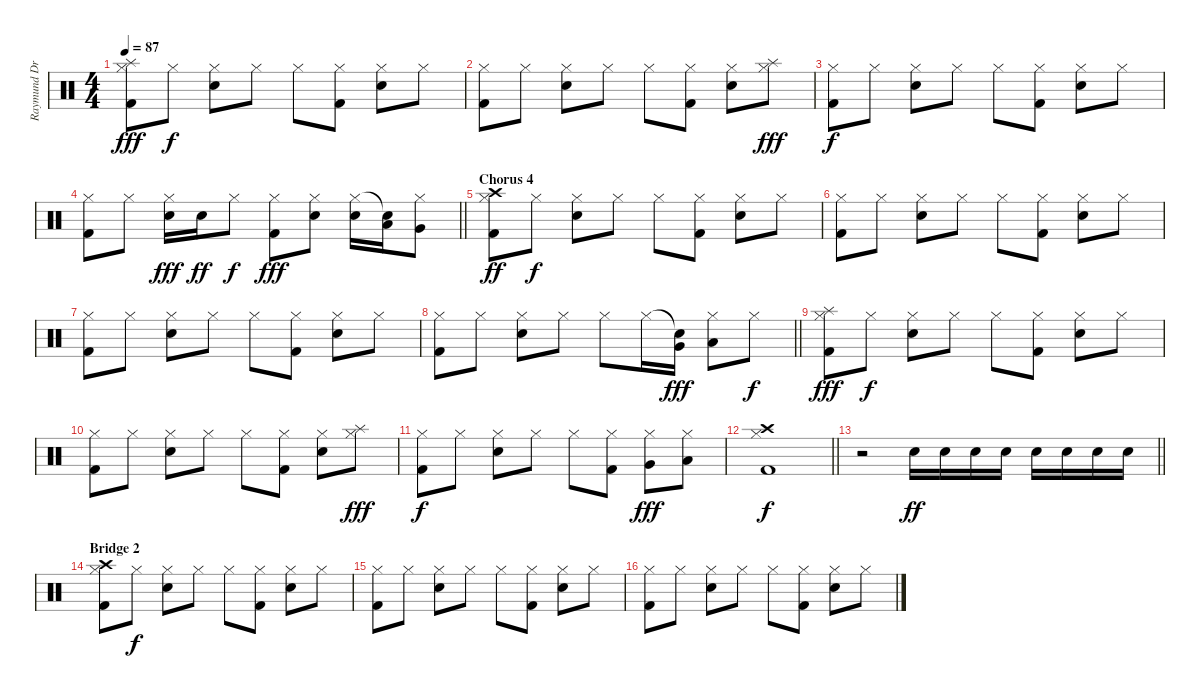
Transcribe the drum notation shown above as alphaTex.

\track ("Raymund Drums" "Raymund Dr") {instrument percussion}
\staff {score}
\articulation defaults
\ts (4 4)
\tempo 87
\clef neutral
\ks c
("Hi-Hat (closed)" "Kick (hit) 2" "Splash (hit)").8{dy fff} "Hi-Hat (closed)".8{dy f} ("Hi-Hat (closed)" "Snare (hit) 2").8 "Hi-Hat (closed)".8 "Hi-Hat (closed)".8 ("Hi-Hat (closed)" "Kick (hit) 2").8 ("Hi-Hat (closed)" "Snare (hit) 2").8 "Hi-Hat (closed)".8 |
("Hi-Hat (closed)" "Kick (hit) 2").8 "Hi-Hat (closed)".8 ("Hi-Hat (closed)" "Snare (hit) 2").8 "Hi-Hat (closed)".8 "Hi-Hat (closed)".8 ("Hi-Hat (closed)" "Kick (hit) 2").8 ("Hi-Hat (closed)" "Snare (hit) 2").8 ("Hi-Hat (closed)" "Splash (hit)").8{dy fff} |
("Hi-Hat (closed)" "Kick (hit) 2").8{dy f} "Hi-Hat (closed)".8 ("Hi-Hat (closed)" "Snare (hit) 2").8 "Hi-Hat (closed)".8 "Hi-Hat (closed)".8 ("Hi-Hat (closed)" "Kick (hit) 2").8 ("Hi-Hat (closed)" "Snare (hit) 2").8 "Hi-Hat (closed)".8 |
\barLineRight lightlight
("Hi-Hat (closed)" "Kick (hit) 2").8 "Hi-Hat (closed)".8 ("Hi-Hat (closed)" "Snare (hit) 2").16{dy fff} "Snare (hit) 2".16{dy ff} "Hi-Hat (closed)".8{dy f} ("Hi-Hat (closed)" "Kick (hit) 2").8{dy fff} ("Hi-Hat (closed)" "Snare (hit) 2").8 ("Hi-Hat (closed)" "Snare (hit) 2").16 ("Snare (hit)"{t} "Low Tom (hit)").16 ("Hi-Hat (closed)" "Very Low Tom (hit)").8 |
\section ("" "Chorus 4")
("Hi-Hat (closed)" "Kick (hit) 2" "Crash high (hit)").8{dy ff} "Hi-Hat (closed)".8{dy f} ("Hi-Hat (closed)" "Snare (hit) 2").8 "Hi-Hat (closed)".8 "Hi-Hat (closed)".8 ("Hi-Hat (closed)" "Kick (hit) 2").8 ("Hi-Hat (closed)" "Snare (hit) 2").8 "Hi-Hat (closed)".8 |
("Hi-Hat (closed)" "Kick (hit) 2").8 "Hi-Hat (closed)".8 ("Hi-Hat (closed)" "Snare (hit) 2").8 "Hi-Hat (closed)".8 "Hi-Hat (closed)".8 ("Hi-Hat (closed)" "Kick (hit) 2").8 ("Hi-Hat (closed)" "Snare (hit) 2").8 "Hi-Hat (closed)".8 |
("Hi-Hat (closed)" "Kick (hit) 2").8 "Hi-Hat (closed)".8 ("Hi-Hat (closed)" "Snare (hit) 2").8 "Hi-Hat (closed)".8 "Hi-Hat (closed)".8 ("Hi-Hat (closed)" "Kick (hit) 2").8 ("Hi-Hat (closed)" "Snare (hit) 2").8 "Hi-Hat (closed)".8 |
\barLineRight lightlight
("Hi-Hat (closed)" "Kick (hit) 2").8 "Hi-Hat (closed)".8 ("Hi-Hat (closed)" "Snare (hit) 2").8 "Hi-Hat (closed)".8 "Hi-Hat (closed)".8 "Hi-Hat (closed)".16 ("Snare (hit)"{t} "Very Low Tom (hit)").16{dy fff} ("Hi-Hat (closed)" "Low Tom (hit)").8 "Hi-Hat (closed)".8{dy f} |
("Hi-Hat (closed)" "Kick (hit) 2" "Splash (hit)").8{dy fff} "Hi-Hat (closed)".8{dy f} ("Hi-Hat (closed)" "Snare (hit) 2").8 "Hi-Hat (closed)".8 "Hi-Hat (closed)".8 ("Hi-Hat (closed)" "Kick (hit) 2").8 ("Hi-Hat (closed)" "Snare (hit) 2").8 "Hi-Hat (closed)".8 |
("Hi-Hat (closed)" "Kick (hit) 2").8 "Hi-Hat (closed)".8 ("Hi-Hat (closed)" "Snare (hit) 2").8 "Hi-Hat (closed)".8 "Hi-Hat (closed)".8 ("Hi-Hat (closed)" "Kick (hit) 2").8 ("Hi-Hat (closed)" "Snare (hit) 2").8 ("Hi-Hat (closed)" "Splash (hit)").8{dy fff} |
("Hi-Hat (closed)" "Kick (hit) 2").8{dy f} "Hi-Hat (closed)".8 ("Hi-Hat (closed)" "Snare (hit) 2").8 "Hi-Hat (closed)".8 "Hi-Hat (closed)".8 ("Hi-Hat (closed)" "Kick (hit) 2").8 ("Hi-Hat (closed)" "Very Low Tom (hit)").8{dy fff} ("Hi-Hat (closed)" "Low Tom (hit)").8 |
\barLineRight lightlight
("Hi-Hat (closed)" "Kick (hit) 2" "Crash high (hit)").1{dy f} |
\barLineRight lightlight
r.2 "Snare (hit) 2".16{dy ff} "Snare (hit) 2".16 "Snare (hit) 2".16 "Snare (hit) 2".16 "Snare (hit) 2".16 "Snare (hit) 2".16 "Snare (hit) 2".16 "Snare (hit) 2".16 |
\section ("" "Bridge 2")
("Hi-Hat (closed)" "Kick (hit) 2" "Crash high (hit)").8 "Hi-Hat (closed)".8{dy f} ("Hi-Hat (closed)" "Snare (hit) 2").8 "Hi-Hat (closed)".8 "Hi-Hat (closed)".8 ("Hi-Hat (closed)" "Kick (hit) 2").8 ("Hi-Hat (closed)" "Snare (hit) 2").8 "Hi-Hat (closed)".8 |
("Hi-Hat (closed)" "Kick (hit) 2").8 "Hi-Hat (closed)".8 ("Hi-Hat (closed)" "Snare (hit) 2").8 "Hi-Hat (closed)".8 "Hi-Hat (closed)".8 ("Hi-Hat (closed)" "Kick (hit) 2").8 ("Hi-Hat (closed)" "Snare (hit) 2").8 "Hi-Hat (closed)".8 |
("Hi-Hat (closed)" "Kick (hit) 2").8 "Hi-Hat (closed)".8 ("Hi-Hat (closed)" "Snare (hit) 2").8 "Hi-Hat (closed)".8 "Hi-Hat (closed)".8 ("Hi-Hat (closed)" "Kick (hit) 2").8 ("Hi-Hat (closed)" "Snare (hit) 2").8 "Hi-Hat (closed)".8
